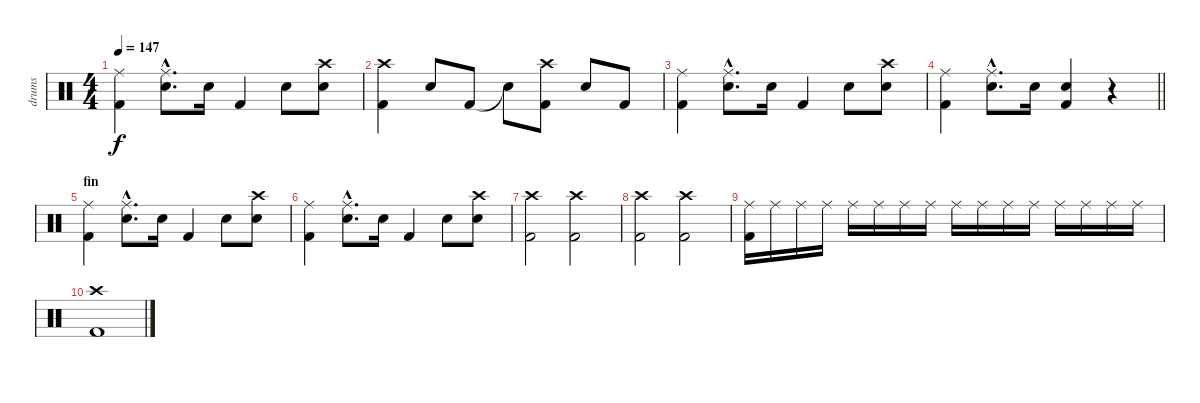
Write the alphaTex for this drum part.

\track ("drums" "drums") {instrument percussion}
\staff {score}
\articulation defaults
\ts (4 4)
\tempo 147
\clef neutral
\ks c
("Ride (middle)" "Kick (hit) 2").4{dy f} ("Ride (middle)"{hac} "Snare (hit) 2"{hac}).8{d} "Snare (hit) 2".16 "Kick (hit) 2".4 "Snare (hit) 2".8 ("Crash high (hit)" "Snare (hit) 2").8 |
("Crash high (hit)" "Kick (hit) 2").4 "Snare (hit) 2".8 "Kick (hit) 2".8 "Snare (hit)"{t}.8 ("Crash high (hit)" "Kick (hit) 2").8 "Snare (hit) 2".8 "Kick (hit) 2".8 |
("Ride (middle)" "Kick (hit) 2").4 ("Ride (middle)"{hac} "Snare (hit) 2"{hac}).8{d} "Snare (hit) 2".16 "Kick (hit) 2".4 "Snare (hit) 2".8 ("Crash high (hit)" "Snare (hit) 2").8 |
\barLineRight lightlight
("Ride (middle)" "Kick (hit) 2").4 ("Ride (middle)"{hac} "Snare (hit) 2"{hac}).8{d} "Snare (hit) 2".16 ("Snare (hit) 2" "Kick (hit) 2").4 r.4 |
\section ("" "fin")
("Ride (middle)" "Kick (hit) 2").4 ("Ride (middle)"{hac} "Snare (hit) 2"{hac}).8{d} "Snare (hit) 2".16 "Kick (hit) 2".4 "Snare (hit) 2".8 ("Crash high (hit)" "Snare (hit) 2").8 |
("Ride (middle)" "Kick (hit) 2").4 ("Ride (middle)"{hac} "Snare (hit) 2"{hac}).8{d} "Snare (hit) 2".16 "Kick (hit) 2".4 "Snare (hit) 2".8 ("Crash high (hit)" "Snare (hit) 2").8 |
("Crash high (hit)" "Kick (hit) 2").2 ("Crash high (hit)" "Kick (hit) 2").2 |
("Crash high (hit)" "Kick (hit) 2").2 ("Crash high (hit)" "Kick (hit) 2").2 |
("Ride (middle)" "Kick (hit) 2").16 "Ride (middle)".16 "Ride (middle)".16 "Ride (middle)".16 "Ride (middle)".16 "Ride (middle)".16 "Ride (middle)".16 "Ride (middle)".16 "Ride (middle)".16 "Ride (middle)".16 "Ride (middle)".16 "Ride (middle)".16 "Ride (middle)".16 "Ride (middle)".16 "Ride (middle)".16 "Ride (middle)".16 |
("Crash high (hit)" "Kick (hit) 2").1
